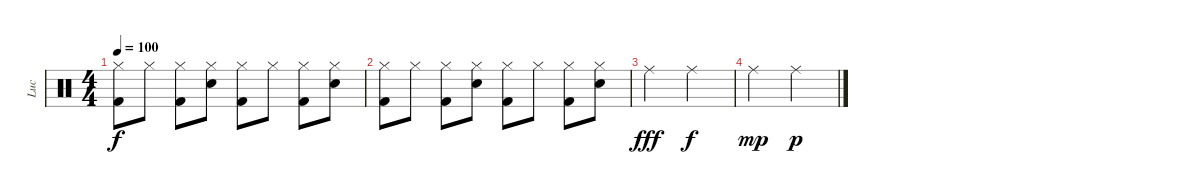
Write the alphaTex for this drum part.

\track ("Luc" "Luc") {instrument percussion}
\staff {score}
\articulation defaults
\ts (4 4)
\tempo 100
\clef neutral
\ks c
("Hi-Hat (closed)" "Kick (hit) 2").8{dy f} "Hi-Hat (closed)".8 ("Hi-Hat (closed)" "Kick (hit) 2").8 ("Hi-Hat (closed)" "Snare (hit) 2").8 ("Hi-Hat (closed)" "Kick (hit) 2").8 "Hi-Hat (closed)".8 ("Hi-Hat (closed)" "Kick (hit) 2").8 ("Hi-Hat (closed)" "Snare (hit) 2").8 |
("Hi-Hat (closed)" "Kick (hit) 2").8 "Hi-Hat (closed)".8 ("Hi-Hat (closed)" "Kick (hit) 2").8 ("Hi-Hat (closed)" "Snare (hit) 2").8 ("Hi-Hat (closed)" "Kick (hit) 2").8 "Hi-Hat (closed)".8 ("Hi-Hat (closed)" "Kick (hit) 2").8 ("Hi-Hat (closed)" "Snare (hit) 2").8 |
"Ride (middle)".2{dy fff} "Ride (middle)".2{dy f} |
"Ride (middle)".2{dy mp} "Ride (middle)".2{dy p}
